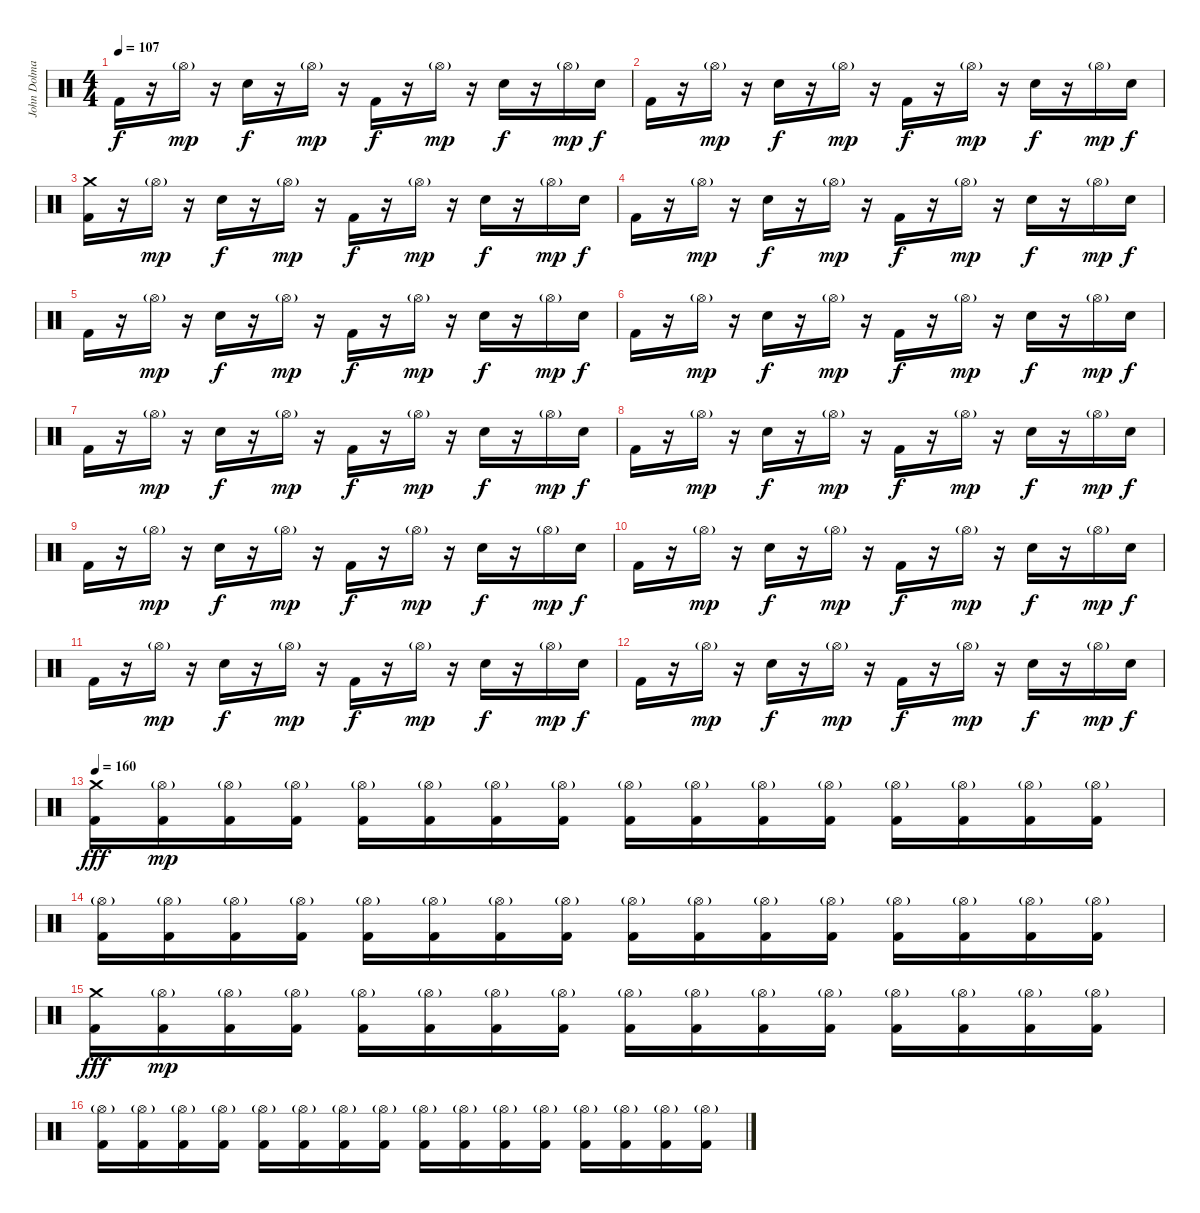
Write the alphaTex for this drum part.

\track ("John Dolmayan(Drums)" "John Dolma") {instrument percussion}
\staff {score}
\articulation defaults
\ts (4 4)
\tempo 107
\clef neutral
\ks c "Kick (hit) 2".16{dy f}
r.16 "Hi-Hat (open)"{g}.16{dy mp} r.16 "Electric Snare (hit)".16{dy f} r.16 "Hi-Hat (open)"{g}.16{dy mp} r.16 "Kick (hit) 2".16{dy f} r.16 "Hi-Hat (open)"{g}.16{dy mp} r.16 "Electric Snare (hit)".16{dy f} r.16 "Hi-Hat (open)"{g}.16{dy mp} "Electric Snare (hit)".16{dy f} |
"Kick (hit) 2".16 r.16 "Hi-Hat (open)"{g}.16{dy mp} r.16 "Electric Snare (hit)".16{dy f} r.16 "Hi-Hat (open)"{g}.16{dy mp} r.16 "Kick (hit) 2".16{dy f} r.16 "Hi-Hat (open)"{g}.16{dy mp} r.16 "Electric Snare (hit)".16{dy f} r.16 "Hi-Hat (open)"{g}.16{dy mp} "Electric Snare (hit)".16{dy f} |
("Crash medium (hit)" "Kick (hit) 2").16 r.16 "Hi-Hat (open)"{g}.16{dy mp} r.16 "Electric Snare (hit)".16{dy f} r.16 "Hi-Hat (open)"{g}.16{dy mp} r.16 "Kick (hit) 2".16{dy f} r.16 "Hi-Hat (open)"{g}.16{dy mp} r.16 "Electric Snare (hit)".16{dy f} r.16 "Hi-Hat (open)"{g}.16{dy mp} "Electric Snare (hit)".16{dy f} |
"Kick (hit) 2".16 r.16 "Hi-Hat (open)"{g}.16{dy mp} r.16 "Electric Snare (hit)".16{dy f} r.16 "Hi-Hat (open)"{g}.16{dy mp} r.16 "Kick (hit) 2".16{dy f} r.16 "Hi-Hat (open)"{g}.16{dy mp} r.16 "Electric Snare (hit)".16{dy f} r.16 "Hi-Hat (open)"{g}.16{dy mp} "Electric Snare (hit)".16{dy f} |
"Kick (hit) 2".16 r.16 "Hi-Hat (open)"{g}.16{dy mp} r.16 "Electric Snare (hit)".16{dy f} r.16 "Hi-Hat (open)"{g}.16{dy mp} r.16 "Kick (hit) 2".16{dy f} r.16 "Hi-Hat (open)"{g}.16{dy mp} r.16 "Electric Snare (hit)".16{dy f} r.16 "Hi-Hat (open)"{g}.16{dy mp} "Electric Snare (hit)".16{dy f} |
"Kick (hit) 2".16 r.16 "Hi-Hat (open)"{g}.16{dy mp} r.16 "Electric Snare (hit)".16{dy f} r.16 "Hi-Hat (open)"{g}.16{dy mp} r.16 "Kick (hit) 2".16{dy f} r.16 "Hi-Hat (open)"{g}.16{dy mp} r.16 "Electric Snare (hit)".16{dy f} r.16 "Hi-Hat (open)"{g}.16{dy mp} "Electric Snare (hit)".16{dy f} |
"Kick (hit) 2".16 r.16 "Hi-Hat (open)"{g}.16{dy mp} r.16 "Electric Snare (hit)".16{dy f} r.16 "Hi-Hat (open)"{g}.16{dy mp} r.16 "Kick (hit) 2".16{dy f} r.16 "Hi-Hat (open)"{g}.16{dy mp} r.16 "Electric Snare (hit)".16{dy f} r.16 "Hi-Hat (open)"{g}.16{dy mp} "Electric Snare (hit)".16{dy f} |
"Kick (hit) 2".16 r.16 "Hi-Hat (open)"{g}.16{dy mp} r.16 "Electric Snare (hit)".16{dy f} r.16 "Hi-Hat (open)"{g}.16{dy mp} r.16 "Kick (hit) 2".16{dy f} r.16 "Hi-Hat (open)"{g}.16{dy mp} r.16 "Electric Snare (hit)".16{dy f} r.16 "Hi-Hat (open)"{g}.16{dy mp} "Electric Snare (hit)".16{dy f} |
"Kick (hit) 2".16 r.16 "Hi-Hat (open)"{g}.16{dy mp} r.16 "Electric Snare (hit)".16{dy f} r.16 "Hi-Hat (open)"{g}.16{dy mp} r.16 "Kick (hit) 2".16{dy f} r.16 "Hi-Hat (open)"{g}.16{dy mp} r.16 "Electric Snare (hit)".16{dy f} r.16 "Hi-Hat (open)"{g}.16{dy mp} "Electric Snare (hit)".16{dy f} |
"Kick (hit) 2".16 r.16 "Hi-Hat (open)"{g}.16{dy mp} r.16 "Electric Snare (hit)".16{dy f} r.16 "Hi-Hat (open)"{g}.16{dy mp} r.16 "Kick (hit) 2".16{dy f} r.16 "Hi-Hat (open)"{g}.16{dy mp} r.16 "Electric Snare (hit)".16{dy f} r.16 "Hi-Hat (open)"{g}.16{dy mp} "Electric Snare (hit)".16{dy f} |
"Kick (hit) 2".16 r.16 "Hi-Hat (open)"{g}.16{dy mp} r.16 "Electric Snare (hit)".16{dy f} r.16 "Hi-Hat (open)"{g}.16{dy mp} r.16 "Kick (hit) 2".16{dy f} r.16 "Hi-Hat (open)"{g}.16{dy mp} r.16 "Electric Snare (hit)".16{dy f} r.16 "Hi-Hat (open)"{g}.16{dy mp} "Electric Snare (hit)".16{dy f} |
"Kick (hit) 2".16 r.16 "Hi-Hat (open)"{g}.16{dy mp} r.16 "Electric Snare (hit)".16{dy f} r.16 "Hi-Hat (open)"{g}.16{dy mp} r.16 "Kick (hit) 2".16{dy f} r.16 "Hi-Hat (open)"{g}.16{dy mp} r.16 "Electric Snare (hit)".16{dy f} r.16 "Hi-Hat (open)"{g}.16{dy mp} "Electric Snare (hit)".16{dy f} |
\tempo 160
("Crash medium (hit)" "Kick (hit) 2").16{dy fff} ("Hi-Hat (open)"{g} "Kick (hit) 2").16{dy mp} ("Hi-Hat (open)"{g} "Kick (hit) 2").16 ("Hi-Hat (open)"{g} "Kick (hit) 2").16 ("Hi-Hat (open)"{g} "Kick (hit) 2").16 ("Hi-Hat (open)"{g} "Kick (hit) 2").16 ("Hi-Hat (open)"{g} "Kick (hit) 2").16 ("Hi-Hat (open)"{g} "Kick (hit) 2").16 ("Hi-Hat (open)"{g} "Kick (hit) 2").16 ("Hi-Hat (open)"{g} "Kick (hit) 2").16 ("Hi-Hat (open)"{g} "Kick (hit) 2").16 ("Hi-Hat (open)"{g} "Kick (hit) 2").16 ("Hi-Hat (open)"{g} "Kick (hit) 2").16 ("Hi-Hat (open)"{g} "Kick (hit) 2").16 ("Hi-Hat (open)"{g} "Kick (hit) 2").16 ("Hi-Hat (open)"{g} "Kick (hit) 2").16 |
("Hi-Hat (open)"{g} "Kick (hit) 2").16 ("Hi-Hat (open)"{g} "Kick (hit) 2").16 ("Hi-Hat (open)"{g} "Kick (hit) 2").16 ("Hi-Hat (open)"{g} "Kick (hit) 2").16 ("Hi-Hat (open)"{g} "Kick (hit) 2").16 ("Hi-Hat (open)"{g} "Kick (hit) 2").16 ("Hi-Hat (open)"{g} "Kick (hit) 2").16 ("Hi-Hat (open)"{g} "Kick (hit) 2").16 ("Hi-Hat (open)"{g} "Kick (hit) 2").16 ("Hi-Hat (open)"{g} "Kick (hit) 2").16 ("Hi-Hat (open)"{g} "Kick (hit) 2").16 ("Hi-Hat (open)"{g} "Kick (hit) 2").16 ("Hi-Hat (open)"{g} "Kick (hit) 2").16 ("Hi-Hat (open)"{g} "Kick (hit) 2").16 ("Hi-Hat (open)"{g} "Kick (hit) 2").16 ("Hi-Hat (open)"{g} "Kick (hit) 2").16 |
("Crash medium (hit)" "Kick (hit) 2").16{dy fff} ("Hi-Hat (open)"{g} "Kick (hit) 2").16{dy mp} ("Hi-Hat (open)"{g} "Kick (hit) 2").16 ("Hi-Hat (open)"{g} "Kick (hit) 2").16 ("Hi-Hat (open)"{g} "Kick (hit) 2").16 ("Hi-Hat (open)"{g} "Kick (hit) 2").16 ("Hi-Hat (open)"{g} "Kick (hit) 2").16 ("Hi-Hat (open)"{g} "Kick (hit) 2").16 ("Hi-Hat (open)"{g} "Kick (hit) 2").16 ("Hi-Hat (open)"{g} "Kick (hit) 2").16 ("Hi-Hat (open)"{g} "Kick (hit) 2").16 ("Hi-Hat (open)"{g} "Kick (hit) 2").16 ("Hi-Hat (open)"{g} "Kick (hit) 2").16 ("Hi-Hat (open)"{g} "Kick (hit) 2").16 ("Hi-Hat (open)"{g} "Kick (hit) 2").16 ("Hi-Hat (open)"{g} "Kick (hit) 2").16 |
("Hi-Hat (open)"{g} "Kick (hit) 2").16 ("Hi-Hat (open)"{g} "Kick (hit) 2").16 ("Hi-Hat (open)"{g} "Kick (hit) 2").16 ("Hi-Hat (open)"{g} "Kick (hit) 2").16 ("Hi-Hat (open)"{g} "Kick (hit) 2").16 ("Hi-Hat (open)"{g} "Kick (hit) 2").16 ("Hi-Hat (open)"{g} "Kick (hit) 2").16 ("Hi-Hat (open)"{g} "Kick (hit) 2").16 ("Hi-Hat (open)"{g} "Kick (hit) 2").16 ("Hi-Hat (open)"{g} "Kick (hit) 2").16 ("Hi-Hat (open)"{g} "Kick (hit) 2").16 ("Hi-Hat (open)"{g} "Kick (hit) 2").16 ("Hi-Hat (open)"{g} "Kick (hit) 2").16 ("Hi-Hat (open)"{g} "Kick (hit) 2").16 ("Hi-Hat (open)"{g} "Kick (hit) 2").16 ("Hi-Hat (open)"{g} "Kick (hit) 2").16
